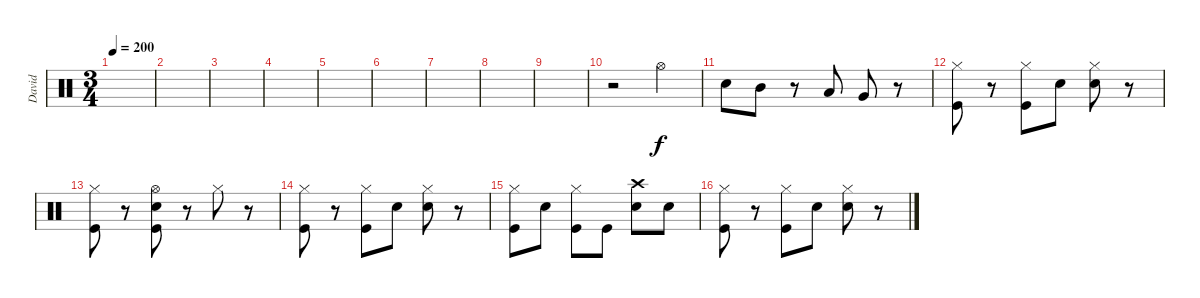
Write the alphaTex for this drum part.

\track ("David" "David") {instrument percussion}
\staff {score}
\articulation defaults
\ts (3 4)
\tempo 200
\clef neutral
\ks c
|
|
|
|
|
|
|
|
|
r.2 "Hi-Hat (open)".4 |
"Electric Snare (hit)".8 "Mid Tom (hit)".8 r.8 "Low Tom (hit)".8 "Very Low Tom (hit)".8 r.8 |
("Hi-Hat (closed)" "Kick (hit)").8 r.8 ("Hi-Hat (closed)" "Kick (hit)").8 "Electric Snare (hit)".8 ("Hi-Hat (closed)" "Electric Snare (hit)").8 r.8 |
("Hi-Hat (closed)" "Kick (hit)").8 r.8 ("Hi-Hat (open)" "Electric Snare (hit)" "Kick (hit)").8 r.8 "Hi-Hat (closed)".8 r.8 |
("Hi-Hat (closed)" "Kick (hit)").8 r.8 ("Hi-Hat (closed)" "Kick (hit)").8 "Electric Snare (hit)".8 ("Hi-Hat (closed)" "Electric Snare (hit)").8 r.8 |
("Hi-Hat (closed)" "Kick (hit)").8 "Electric Snare (hit)".8 ("Hi-Hat (closed)" "Kick (hit)").8 "Kick (hit)".8 ("Crash high (hit)" "Electric Snare (hit)").8 "Electric Snare (hit)".8 |
("Hi-Hat (closed)" "Kick (hit)").8 r.8 ("Hi-Hat (closed)" "Kick (hit)").8 "Electric Snare (hit)".8 ("Hi-Hat (closed)" "Electric Snare (hit)").8 r.8
